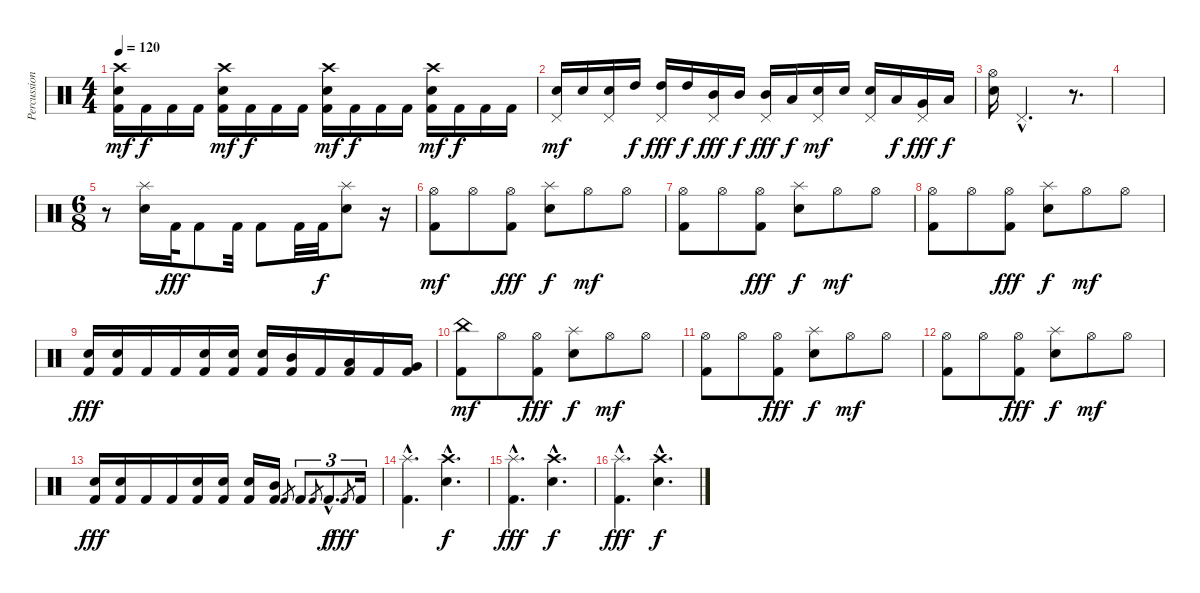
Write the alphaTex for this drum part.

\track ("Percussion" "Percussion") {instrument percussion}
\staff {score}
\articulation defaults
\ts (4 4)
\tempo 120
\clef neutral
\ks c
("Crash high (hit)" "Electric Snare (hit)" "Kick (hit) 2").16{dy mf} "Kick (hit) 2".16{dy f} "Kick (hit) 2".16 "Kick (hit) 2".16 ("Crash high (hit)" "Electric Snare (hit)" "Kick (hit) 2").16{dy mf} "Kick (hit) 2".16{dy f} "Kick (hit) 2".16 "Kick (hit) 2".16 ("Crash high (hit)" "Electric Snare (hit)" "Kick (hit) 2").16{dy mf} "Kick (hit) 2".16{dy f} "Kick (hit) 2".16 "Kick (hit) 2".16 ("Crash high (hit)" "Electric Snare (hit)" "Kick (hit) 2").16{dy mf} "Kick (hit) 2".16{dy f} "Kick (hit) 2".16 "Kick (hit) 2".16 |
("Pedal Hi-Hat (hit)" "Electric Snare (hit)").16{dy mf} "Electric Snare (hit)".16 ("Pedal Hi-Hat (hit)" "Electric Snare (hit)").16 "High Tom (hit)".16{dy f} ("Pedal Hi-Hat (hit)" "High Tom (hit)").16{dy fff} "High Tom (hit)".16{dy f} ("Pedal Hi-Hat (hit)" "Mid Tom (hit)").16{dy fff} "Mid Tom (hit)".16{dy f} ("Pedal Hi-Hat (hit)" "Mid Tom (hit)").16{dy fff} "Low Tom (hit)".16{dy f} ("Pedal Hi-Hat (hit)" "Electric Snare (hit)").16{dy mf} "Electric Snare (hit)".16 ("Pedal Hi-Hat (hit)" "Electric Snare (hit)").16 "Low Tom (hit)".16{dy f} ("Pedal Hi-Hat (hit)" "Very Low Tom (hit)").16{dy fff} "Low Floor Tom (hit)".16{dy f} |
("Hi-Hat (open)" "Electric Snare (hit)").16 "Pedal Hi-Hat (hit)"{hac}.2{d} r.8{d} |
|
\ts (6 8)
r.8 ("Splash (hit)" "Electric Snare (hit)").16 "Kick (hit) 2".32{dy fff} "Kick (hit) 2".8 "Kick (hit) 2".32 "Kick (hit) 2".8 "Kick (hit) 2".32 "Kick (hit) 2".32{dy f} ("Splash (hit)" "Electric Snare (hit)").8 r.16 |
("Hi-Hat (open)" "Kick (hit) 2").8{dy mf} "Hi-Hat (open)".8 ("Hi-Hat (open)" "Kick (hit) 2").8{dy fff} ("Splash (hit)" "Electric Snare (hit)").8{dy f} "Hi-Hat (open)".8{dy mf} "Hi-Hat (open)".8 |
("Hi-Hat (open)" "Kick (hit) 2").8 "Hi-Hat (open)".8 ("Hi-Hat (open)" "Kick (hit) 2").8{dy fff} ("Splash (hit)" "Electric Snare (hit)").8{dy f} "Hi-Hat (open)".8{dy mf} "Hi-Hat (open)".8 |
("Hi-Hat (open)" "Kick (hit) 2").8 "Hi-Hat (open)".8 ("Hi-Hat (open)" "Kick (hit) 2").8{dy fff} ("Splash (hit)" "Electric Snare (hit)").8{dy f} "Hi-Hat (open)".8{dy mf} "Hi-Hat (open)".8 |
("Electric Snare (hit)" "Kick (hit) 2").16{dy fff} ("Electric Snare (hit)" "Kick (hit) 2").16 "Kick (hit) 2".16 "Kick (hit) 2".16 ("Electric Snare (hit)" "Kick (hit) 2").16 ("Electric Snare (hit)" "Kick (hit) 2").16 ("Electric Snare (hit)" "Kick (hit) 2").16 ("Mid Tom (hit)" "Kick (hit) 2").16 "Kick (hit) 2".16 ("Low Tom (hit)" "Kick (hit) 2").16 "Kick (hit) 2".16 ("Very Low Tom (hit)" "Kick (hit) 2").16 |
("China (hit)" "Kick (hit) 2").8{dy mf} "Hi-Hat (open)".8 ("Hi-Hat (open)" "Kick (hit) 2").8{dy fff} ("Splash (hit)" "Electric Snare (hit)").8{dy f} "Hi-Hat (open)".8{dy mf} "Hi-Hat (open)".8 |
("Hi-Hat (open)" "Kick (hit) 2").8 "Hi-Hat (open)".8 ("Hi-Hat (open)" "Kick (hit) 2").8{dy fff} ("Splash (hit)" "Electric Snare (hit)").8{dy f} "Hi-Hat (open)".8{dy mf} "Hi-Hat (open)".8 |
("Hi-Hat (open)" "Kick (hit) 2").8 "Hi-Hat (open)".8 ("Hi-Hat (open)" "Kick (hit) 2").8{dy fff} ("Splash (hit)" "Electric Snare (hit)").8{dy f} "Hi-Hat (open)".8{dy mf} "Hi-Hat (open)".8 |
("Electric Snare (hit)" "Kick (hit) 2").16{dy fff} ("Electric Snare (hit)" "Kick (hit) 2").16 "Kick (hit) 2".16 "Kick (hit) 2".16 ("Electric Snare (hit)" "Kick (hit) 2").16 ("Electric Snare (hit)" "Kick (hit) 2").16 ("Electric Snare (hit)" "Kick (hit) 2").16 ("Mid Tom (hit)" "Kick (hit) 2").16 "Kick (hit) 2".8{gr} "Kick (hit) 2".8{tu (3 2)} "Kick (hit) 2".8{gr} "Kick (hit) 2"{hac}.8{d tu (3 2) dy f} "Kick (hit) 2".8{gr dy fff} "Kick (hit) 2".16{tu (3 2)} |
("Splash (hit)"{hac} "Kick (hit) 2"{hac}).4{d} ("Crash high (hit)"{hac} "Electric Snare (hit)"{hac}).4{d dy f} |
("Splash (hit)"{hac} "Kick (hit) 2"{hac}).4{d dy fff} ("Crash high (hit)"{hac} "Electric Snare (hit)"{hac}).4{d dy f} |
("Splash (hit)"{hac} "Kick (hit) 2"{hac}).4{d dy fff} ("Crash high (hit)"{hac} "Electric Snare (hit)"{hac}).4{d dy f}
